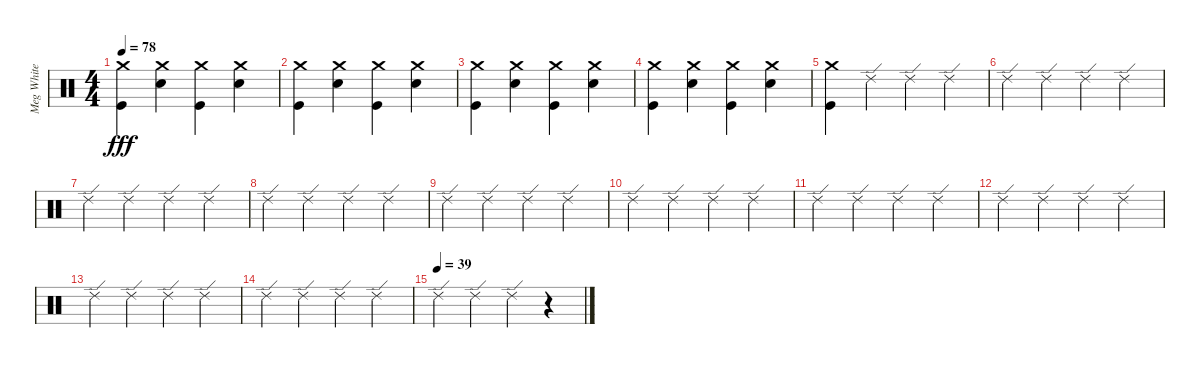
\track ("Meg White" "Meg White") {instrument percussion}
\staff {score}
\articulation defaults
\ts (4 4)
\tempo 78
\clef neutral
\ks c
("Crash medium (hit)" "Kick (hit)").4{dy fff} ("Crash medium (hit)" "Snare (hit) 2").4 ("Crash medium (hit)" "Kick (hit)").4 ("Crash medium (hit)" "Snare (hit) 2").4 |
("Crash medium (hit)" "Kick (hit)").4 ("Crash medium (hit)" "Snare (hit) 2").4 ("Crash medium (hit)" "Kick (hit)").4 ("Crash medium (hit)" "Snare (hit) 2").4 |
("Crash medium (hit)" "Kick (hit)").4 ("Crash medium (hit)" "Snare (hit) 2").4 ("Crash medium (hit)" "Kick (hit)").4 ("Crash medium (hit)" "Snare (hit) 2").4 |
("Crash medium (hit)" "Kick (hit)").4 ("Crash medium (hit)" "Snare (hit) 2").4 ("Crash medium (hit)" "Kick (hit)").4 ("Crash medium (hit)" "Snare (hit) 2").4 |
("Crash medium (hit)" "Kick (hit)").4 "Ride (edge) 2".4 "Ride (edge) 2".4 "Ride (edge) 2".4 |
"Ride (edge) 2".4 "Ride (edge) 2".4 "Ride (edge) 2".4 "Ride (edge) 2".4 |
"Ride (edge) 2".4 "Ride (edge) 2".4 "Ride (edge) 2".4 "Ride (edge) 2".4 |
"Ride (edge) 2".4 "Ride (edge) 2".4 "Ride (edge) 2".4 "Ride (edge) 2".4 |
"Ride (edge) 2".4 "Ride (edge) 2".4 "Ride (edge) 2".4 "Ride (edge) 2".4 |
"Ride (edge) 2".4 "Ride (edge) 2".4 "Ride (edge) 2".4 "Ride (edge) 2".4 |
"Ride (edge) 2".4 "Ride (edge) 2".4 "Ride (edge) 2".4 "Ride (edge) 2".4 |
"Ride (edge) 2".4 "Ride (edge) 2".4 "Ride (edge) 2".4 "Ride (edge) 2".4 |
"Ride (edge) 2".4 "Ride (edge) 2".4 "Ride (edge) 2".4 "Ride (edge) 2".4 |
"Ride (edge) 2".4 "Ride (edge) 2".4 "Ride (edge) 2".4 "Ride (edge) 2".4 |
\tempo (39)
"Ride (edge) 2".4 "Ride (edge) 2".4 "Ride (edge) 2".4 r.4
